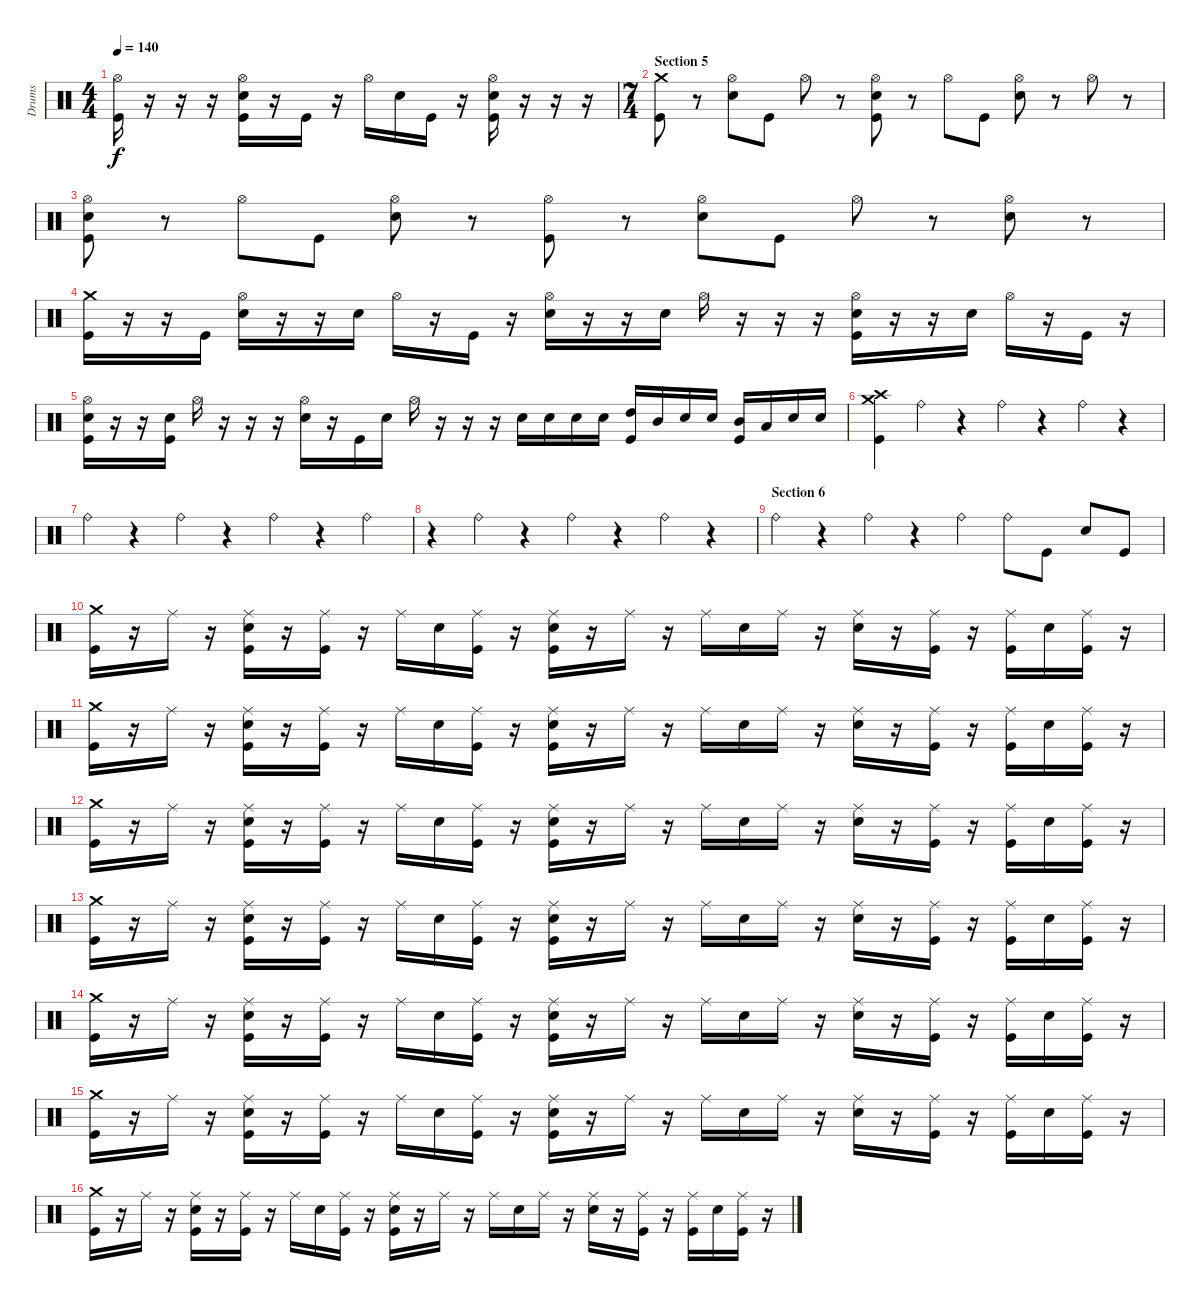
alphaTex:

\track ("Drums" "Drums") {instrument percussion}
\staff {score}
\articulation defaults
\ts (4 4)
\tempo 140
\clef neutral
\ks c
("Hi-Hat (open)" "Kick (hit)").16{dy f} r.16 r.16 r.16 ("Hi-Hat (open)" "Electric Snare (hit)" "Kick (hit)").16 r.16 "Kick (hit)".16 r.16 "Hi-Hat (open)".16 "Electric Snare (hit)".16 "Kick (hit)".16 r.16 ("Hi-Hat (open)" "Electric Snare (hit)" "Kick (hit)").16 r.16 r.16 r.16 |
\ts (7 4)
\section ("" "Section 5")
("Crash medium (hit)" "Kick (hit)").8 r.8 ("Hi-Hat (open)" "Electric Snare (hit)").8 "Kick (hit)".8 "Hi-Hat (open)".8 r.8 ("Hi-Hat (open)" "Electric Snare (hit)" "Kick (hit)").8 r.8 "Hi-Hat (open)".8 "Kick (hit)".8 ("Hi-Hat (open)" "Electric Snare (hit)").8 r.8 "Hi-Hat (open)".8 r.8 |
("Hi-Hat (open)" "Electric Snare (hit)" "Kick (hit)").8 r.8 "Hi-Hat (open)".8 "Kick (hit)".8 ("Hi-Hat (open)" "Electric Snare (hit)").8 r.8 ("Hi-Hat (open)" "Kick (hit)").8 r.8 ("Hi-Hat (open)" "Electric Snare (hit)").8 "Kick (hit)".8 "Hi-Hat (open)".8 r.8 ("Hi-Hat (open)" "Electric Snare (hit)").8 r.8 |
("Crash medium (hit)" "Kick (hit)").16 r.16 r.16 "Kick (hit)".16 ("Hi-Hat (open)" "Electric Snare (hit)").16 r.16 r.16 "Electric Snare (hit)".16 "Hi-Hat (open)".16 r.16 "Kick (hit)".16 r.16 ("Hi-Hat (open)" "Electric Snare (hit)").16 r.16 r.16 "Electric Snare (hit)".16 "Hi-Hat (open)".16 r.16 r.16 r.16 ("Hi-Hat (open)" "Electric Snare (hit)" "Kick (hit)").16 r.16 r.16 "Electric Snare (hit)".16 "Hi-Hat (open)".16 r.16 "Kick (hit)".16 r.16 |
("Hi-Hat (open)" "Electric Snare (hit)" "Kick (hit)").16 r.16 r.16 ("Electric Snare (hit)" "Kick (hit)").16 "Hi-Hat (open)".16 r.16 r.16 r.16 ("Hi-Hat (open)" "Electric Snare (hit)").16 r.16 "Kick (hit)".16 "Electric Snare (hit)".16 "Hi-Hat (open)".16 r.16 r.16 r.16 "Electric Snare (hit)".16 "Electric Snare (hit)".16 "Electric Snare (hit)".16 "Electric Snare (hit)".16 ("High Tom (hit)" "Kick (hit)").16 "Mid Tom (hit)".16 "Electric Snare (hit)".16 "Electric Snare (hit)".16 ("Mid Tom (hit)" "Kick (hit)").16 "Low Tom (hit)".16 "Electric Snare (hit)".16 "Electric Snare (hit)".16 |
("Crash high (hit)" "Crash medium (hit)" "Kick (hit)").4 "Ride (bell)".4 r.4 "Ride (bell)".4 r.4 "Ride (bell)".4 r.4 |
"Ride (bell)".4 r.4 "Ride (bell)".4 r.4 "Ride (bell)".4 r.4 "Ride (bell)".4 |
r.4 "Ride (bell)".4 r.4 "Ride (bell)".4 r.4 "Ride (bell)".4 r.4 |
\section ("" "Section 6")
"Ride (bell)".4 r.4 "Ride (bell)".4 r.4 "Ride (bell)".4 "Ride (bell)".8 "Kick (hit)".8 "Electric Snare (hit)".8 "Kick (hit)".8 |
("Crash medium (hit)" "Kick (hit)").16 r.16 "Ride (middle)".16 r.16 ("Ride (middle)" "Electric Snare (hit)" "Kick (hit)").16 r.16 ("Ride (middle)" "Kick (hit)").16 r.16 "Ride (middle)".16 "Electric Snare (hit)".16 ("Ride (middle)" "Kick (hit)").16 r.16 ("Ride (middle)" "Electric Snare (hit)" "Kick (hit)").16 r.16 "Ride (middle)".16 r.16 "Ride (middle)".16 "Electric Snare (hit)".16 "Ride (middle)".16 r.16 ("Ride (middle)" "Electric Snare (hit)").16 r.16 ("Ride (middle)" "Kick (hit)").16 r.16 ("Ride (middle)" "Kick (hit)").16 "Electric Snare (hit)".16 ("Ride (middle)" "Kick (hit)").16 r.16 |
("Crash medium (hit)" "Kick (hit)").16 r.16 "Ride (middle)".16 r.16 ("Ride (middle)" "Electric Snare (hit)" "Kick (hit)").16 r.16 ("Ride (middle)" "Kick (hit)").16 r.16 "Ride (middle)".16 "Electric Snare (hit)".16 ("Ride (middle)" "Kick (hit)").16 r.16 ("Ride (middle)" "Electric Snare (hit)" "Kick (hit)").16 r.16 "Ride (middle)".16 r.16 "Ride (middle)".16 "Electric Snare (hit)".16 "Ride (middle)".16 r.16 ("Ride (middle)" "Electric Snare (hit)").16 r.16 ("Ride (middle)" "Kick (hit)").16 r.16 ("Ride (middle)" "Kick (hit)").16 "Electric Snare (hit)".16 ("Ride (middle)" "Kick (hit)").16 r.16 |
("Crash medium (hit)" "Kick (hit)").16 r.16 "Ride (middle)".16 r.16 ("Ride (middle)" "Electric Snare (hit)" "Kick (hit)").16 r.16 ("Ride (middle)" "Kick (hit)").16 r.16 "Ride (middle)".16 "Electric Snare (hit)".16 ("Ride (middle)" "Kick (hit)").16 r.16 ("Ride (middle)" "Electric Snare (hit)" "Kick (hit)").16 r.16 "Ride (middle)".16 r.16 "Ride (middle)".16 "Electric Snare (hit)".16 "Ride (middle)".16 r.16 ("Ride (middle)" "Electric Snare (hit)").16 r.16 ("Ride (middle)" "Kick (hit)").16 r.16 ("Ride (middle)" "Kick (hit)").16 "Electric Snare (hit)".16 ("Ride (middle)" "Kick (hit)").16 r.16 |
("Crash medium (hit)" "Kick (hit)").16 r.16 "Ride (middle)".16 r.16 ("Ride (middle)" "Electric Snare (hit)" "Kick (hit)").16 r.16 ("Ride (middle)" "Kick (hit)").16 r.16 "Ride (middle)".16 "Electric Snare (hit)".16 ("Ride (middle)" "Kick (hit)").16 r.16 ("Ride (middle)" "Electric Snare (hit)" "Kick (hit)").16 r.16 "Ride (middle)".16 r.16 "Ride (middle)".16 "Electric Snare (hit)".16 "Ride (middle)".16 r.16 ("Ride (middle)" "Electric Snare (hit)").16 r.16 ("Ride (middle)" "Kick (hit)").16 r.16 ("Ride (middle)" "Kick (hit)").16 "Electric Snare (hit)".16 ("Ride (middle)" "Kick (hit)").16 r.16 |
("Crash medium (hit)" "Kick (hit)").16 r.16 "Ride (middle)".16 r.16 ("Ride (middle)" "Electric Snare (hit)" "Kick (hit)").16 r.16 ("Ride (middle)" "Kick (hit)").16 r.16 "Ride (middle)".16 "Electric Snare (hit)".16 ("Ride (middle)" "Kick (hit)").16 r.16 ("Ride (middle)" "Electric Snare (hit)" "Kick (hit)").16 r.16 "Ride (middle)".16 r.16 "Ride (middle)".16 "Electric Snare (hit)".16 "Ride (middle)".16 r.16 ("Ride (middle)" "Electric Snare (hit)").16 r.16 ("Ride (middle)" "Kick (hit)").16 r.16 ("Ride (middle)" "Kick (hit)").16 "Electric Snare (hit)".16 ("Ride (middle)" "Kick (hit)").16 r.16 |
("Crash medium (hit)" "Kick (hit)").16 r.16 "Ride (middle)".16 r.16 ("Ride (middle)" "Electric Snare (hit)" "Kick (hit)").16 r.16 ("Ride (middle)" "Kick (hit)").16 r.16 "Ride (middle)".16 "Electric Snare (hit)".16 ("Ride (middle)" "Kick (hit)").16 r.16 ("Ride (middle)" "Electric Snare (hit)" "Kick (hit)").16 r.16 "Ride (middle)".16 r.16 "Ride (middle)".16 "Electric Snare (hit)".16 "Ride (middle)".16 r.16 ("Ride (middle)" "Electric Snare (hit)").16 r.16 ("Ride (middle)" "Kick (hit)").16 r.16 ("Ride (middle)" "Kick (hit)").16 "Electric Snare (hit)".16 ("Ride (middle)" "Kick (hit)").16 r.16 |
("Crash medium (hit)" "Kick (hit)").16 r.16 "Ride (middle)".16 r.16 ("Ride (middle)" "Electric Snare (hit)" "Kick (hit)").16 r.16 ("Ride (middle)" "Kick (hit)").16 r.16 "Ride (middle)".16 "Electric Snare (hit)".16 ("Ride (middle)" "Kick (hit)").16 r.16 ("Ride (middle)" "Electric Snare (hit)" "Kick (hit)").16 r.16 "Ride (middle)".16 r.16 "Ride (middle)".16 "Electric Snare (hit)".16 "Ride (middle)".16 r.16 ("Ride (middle)" "Electric Snare (hit)").16 r.16 ("Ride (middle)" "Kick (hit)").16 r.16 ("Ride (middle)" "Kick (hit)").16 "Electric Snare (hit)".16 ("Ride (middle)" "Kick (hit)").16 r.16
